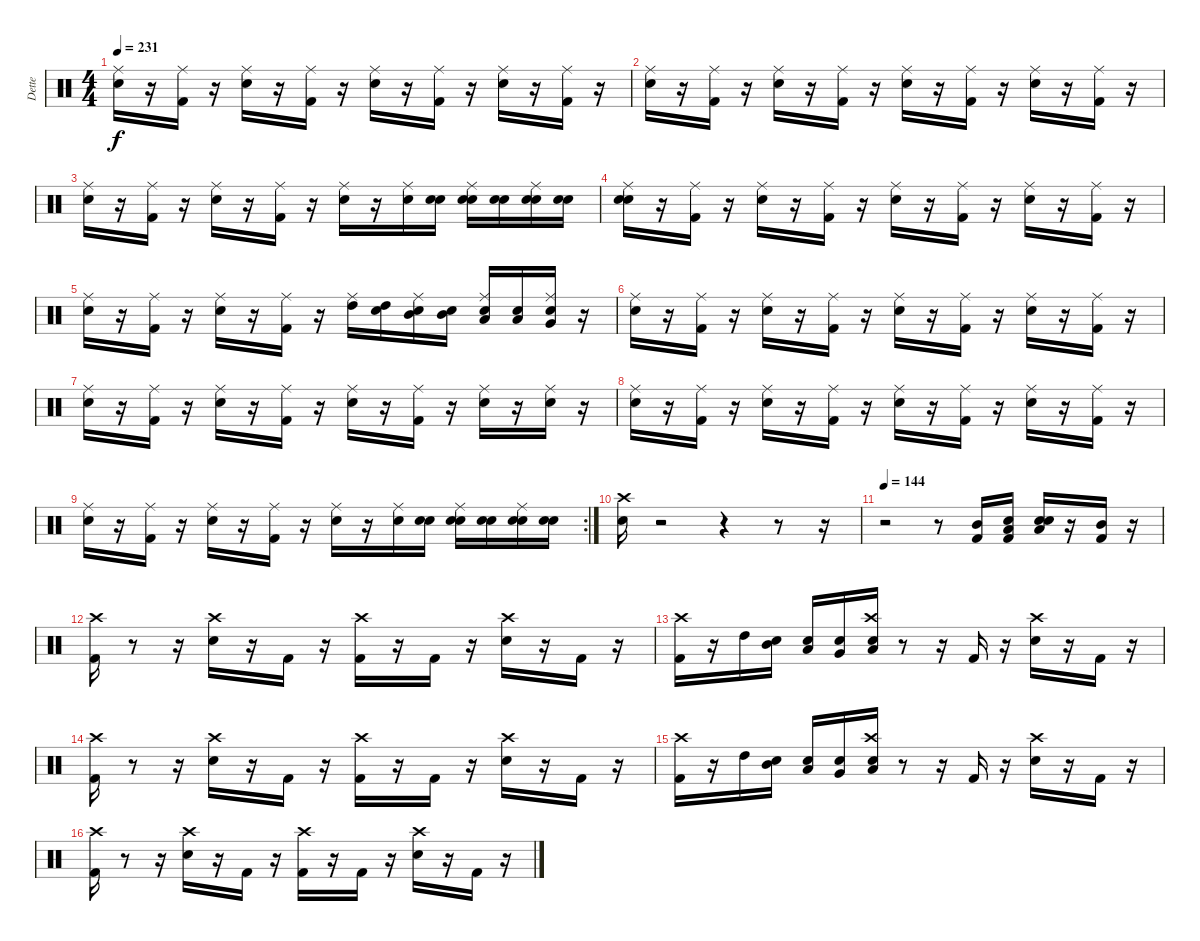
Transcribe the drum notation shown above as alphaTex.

\track ("Dette" "Dette") {instrument percussion}
\staff {score}
\articulation defaults
\ts (4 4)
\tempo 231
\clef neutral
\ks c
("Snare (hit) 2" "Ride (middle)").16{dy f} r.16 ("Kick (hit) 2" "Ride (middle)").16 r.16 ("Snare (hit) 2" "Ride (middle)").16 r.16 ("Kick (hit) 2" "Ride (middle)").16 r.16 ("Snare (hit) 2" "Ride (middle)").16 r.16 ("Kick (hit) 2" "Ride (middle)").16 r.16 ("Snare (hit) 2" "Ride (middle)").16 r.16 ("Kick (hit) 2" "Ride (middle)").16 r.16 |
("Snare (hit) 2" "Ride (middle)").16 r.16 ("Kick (hit) 2" "Ride (middle)").16 r.16 ("Snare (hit) 2" "Ride (middle)").16 r.16 ("Kick (hit) 2" "Ride (middle)").16 r.16 ("Snare (hit) 2" "Ride (middle)").16 r.16 ("Kick (hit) 2" "Ride (middle)").16 r.16 ("Snare (hit) 2" "Ride (middle)").16 r.16 ("Kick (hit) 2" "Ride (middle)").16 r.16 |
("Snare (hit) 2" "Ride (middle)").16 r.16 ("Kick (hit) 2" "Ride (middle)").16 r.16 ("Snare (hit) 2" "Ride (middle)").16 r.16 ("Kick (hit) 2" "Ride (middle)").16 r.16 ("Snare (hit) 2" "Ride (middle)").16 r.16 ("Snare (hit) 2" "Ride (middle)").16 ("Snare (hit)" "Snare (hit) 2").16 ("Snare (hit)" "Snare (hit) 2" "Ride (middle)").16 ("Snare (hit)" "Snare (hit) 2").16 ("Snare (hit)" "Snare (hit) 2" "Ride (middle)").16 ("Snare (hit)" "Snare (hit) 2").16 |
("Snare (hit)" "Snare (hit) 2" "Ride (middle)").16 r.16 ("Kick (hit) 2" "Ride (middle)").16 r.16 ("Snare (hit) 2" "Ride (middle)").16 r.16 ("Kick (hit) 2" "Ride (middle)").16 r.16 ("Snare (hit) 2" "Ride (middle)").16 r.16 ("Kick (hit) 2" "Ride (middle)").16 r.16 ("Snare (hit) 2" "Ride (middle)").16 r.16 ("Kick (hit) 2" "Ride (middle)").16 r.16 |
("Snare (hit) 2" "Ride (middle)").16 r.16 ("Kick (hit) 2" "Ride (middle)").16 r.16 ("Snare (hit) 2" "Ride (middle)").16 r.16 ("Kick (hit) 2" "Ride (middle)").16 r.16 ("High Tom (hit)" "Ride (middle)").16 ("Snare (hit)" "High Tom (hit)").16 ("Snare (hit)" "Mid Tom (hit)" "Ride (middle)").16 ("Snare (hit)" "Mid Tom (hit)").16 ("Snare (hit)" "Low Tom (hit)" "Ride (middle)").16 ("Snare (hit)" "Low Tom (hit)").16 ("Snare (hit)" "Very Low Tom (hit)" "Ride (middle)").16 r.16 |
("Snare (hit) 2" "Ride (middle)").16 r.16 ("Kick (hit) 2" "Ride (middle)").16 r.16 ("Snare (hit) 2" "Ride (middle)").16 r.16 ("Kick (hit) 2" "Ride (middle)").16 r.16 ("Snare (hit) 2" "Ride (middle)").16 r.16 ("Kick (hit) 2" "Ride (middle)").16 r.16 ("Snare (hit) 2" "Ride (middle)").16 r.16 ("Kick (hit) 2" "Ride (middle)").16 r.16 |
("Snare (hit) 2" "Ride (middle)").16 r.16 ("Kick (hit) 2" "Ride (middle)").16 r.16 ("Snare (hit) 2" "Ride (middle)").16 r.16 ("Kick (hit) 2" "Ride (middle)").16 r.16 ("Snare (hit) 2" "Ride (middle)").16 r.16 ("Kick (hit) 2" "Ride (middle)").16 r.16 ("Snare (hit) 2" "Ride (middle)").16 r.16 ("Snare (hit) 2" "Ride (middle)").16 r.16 |
("Snare (hit) 2" "Ride (middle)").16 r.16 ("Kick (hit) 2" "Ride (middle)").16 r.16 ("Snare (hit) 2" "Ride (middle)").16 r.16 ("Kick (hit) 2" "Ride (middle)").16 r.16 ("Snare (hit) 2" "Ride (middle)").16 r.16 ("Kick (hit) 2" "Ride (middle)").16 r.16 ("Snare (hit) 2" "Ride (middle)").16 r.16 ("Kick (hit) 2" "Ride (middle)").16 r.16 |
\rc 2
("Snare (hit) 2" "Ride (middle)").16 r.16 ("Kick (hit) 2" "Ride (middle)").16 r.16 ("Snare (hit) 2" "Ride (middle)").16 r.16 ("Kick (hit) 2" "Ride (middle)").16 r.16 ("Snare (hit) 2" "Ride (middle)").16 r.16 ("Snare (hit) 2" "Ride (middle)").16 ("Snare (hit)" "Snare (hit) 2").16 ("Snare (hit)" "Snare (hit) 2" "Ride (middle)").16 ("Snare (hit)" "Snare (hit) 2").16 ("Snare (hit)" "Snare (hit) 2" "Ride (middle)").16 ("Snare (hit)" "Snare (hit) 2").16 |
("Snare (hit) 2" "Crash high (hit)").16 r.2 r.4 r.8 r.16 |
\tempo 144
r.2 r.8 ("Kick (hit) 2" "Mid Tom (hit)").16 ("Snare (hit)" "Kick (hit) 2" "Low Tom (hit)").16 ("Snare (hit)" "Snare (hit) 2" "Low Floor Tom (hit)").16 r.16 ("Kick (hit) 2" "Mid Tom (hit)").16 r.16 |
("Kick (hit) 2" "Crash high (hit)").16 r.8 r.16 ("Snare (hit) 2" "Crash high (hit)").16 r.16 "Kick (hit) 2".16 r.16 ("Kick (hit) 2" "Crash high (hit)").16 r.16 "Kick (hit) 2".16 r.16 ("Snare (hit) 2" "Crash high (hit)").16 r.16 "Kick (hit) 2".16 r.16 |
("Kick (hit) 2" "Crash high (hit)").16 r.16 "High Tom (hit)".16 ("Snare (hit)" "Mid Tom (hit)").16 ("Snare (hit)" "Low Tom (hit)").16 ("Snare (hit)" "Very Low Tom (hit)").16 ("Snare (hit)" "Low Floor Tom (hit)" "Crash high (hit)").16 r.8 r.16 "Kick (hit) 2".16 r.16 ("Snare (hit) 2" "Crash high (hit)").16 r.16 "Kick (hit) 2".16 r.16 |
("Kick (hit) 2" "Crash high (hit)").16 r.8 r.16 ("Snare (hit) 2" "Crash high (hit)").16 r.16 "Kick (hit) 2".16 r.16 ("Kick (hit) 2" "Crash high (hit)").16 r.16 "Kick (hit) 2".16 r.16 ("Snare (hit) 2" "Crash high (hit)").16 r.16 "Kick (hit) 2".16 r.16 |
("Kick (hit) 2" "Crash high (hit)").16 r.16 "High Tom (hit)".16 ("Snare (hit)" "Mid Tom (hit)").16 ("Snare (hit)" "Low Tom (hit)").16 ("Snare (hit)" "Very Low Tom (hit)").16 ("Snare (hit)" "Low Floor Tom (hit)" "Crash high (hit)").16 r.8 r.16 "Kick (hit) 2".16 r.16 ("Snare (hit) 2" "Crash high (hit)").16 r.16 "Kick (hit) 2".16 r.16 |
("Kick (hit) 2" "Crash high (hit)").16 r.8 r.16 ("Snare (hit) 2" "Crash high (hit)").16 r.16 "Kick (hit) 2".16 r.16 ("Kick (hit) 2" "Crash high (hit)").16 r.16 "Kick (hit) 2".16 r.16 ("Snare (hit) 2" "Crash high (hit)").16 r.16 "Kick (hit) 2".16 r.16
